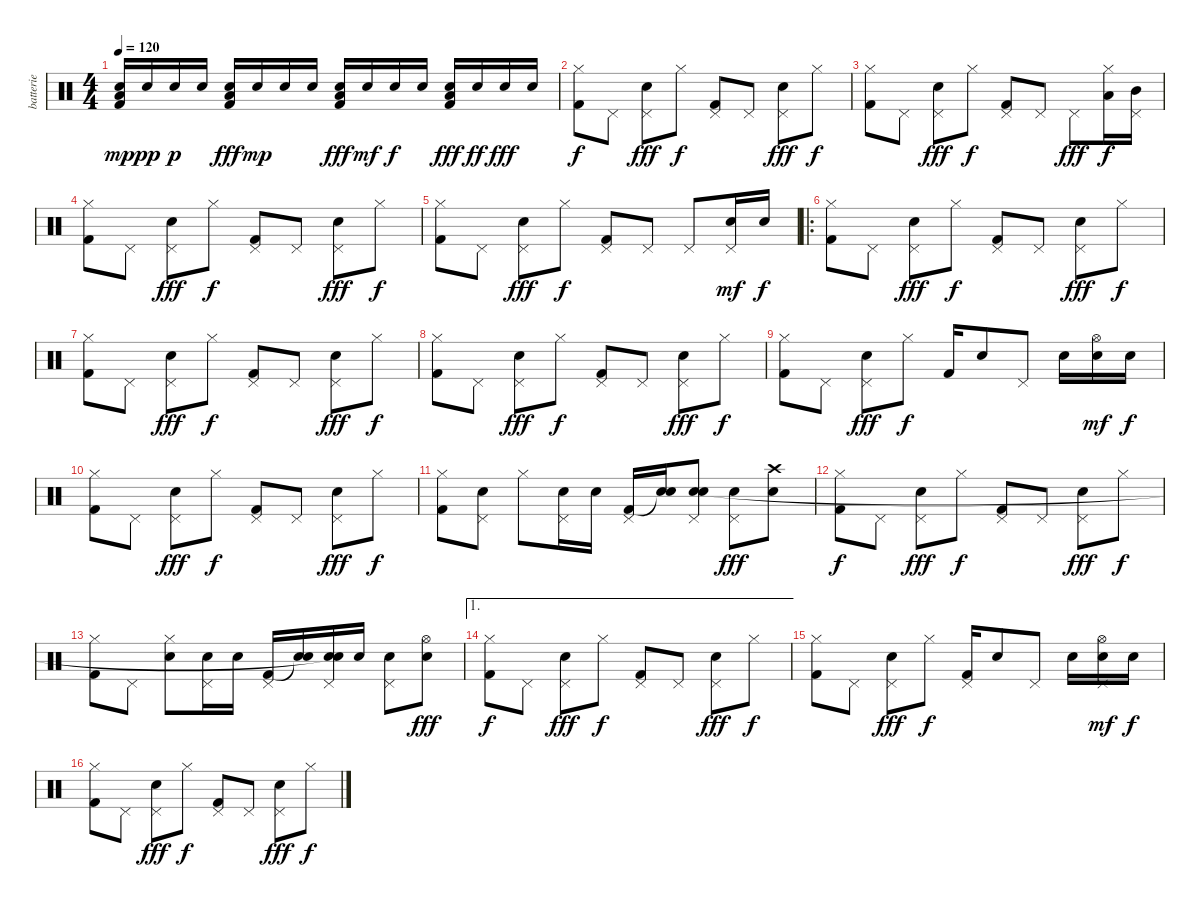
\track ("batterie" "batterie") {instrument percussion}
\staff {score}
\articulation defaults
\ts (4 4)
\tempo 120
\clef neutral
\ks c
("Electric Snare (hit)" "Low Floor Tom (hit)" "Kick (hit) 2").16{dy mp} "Electric Snare (hit)".16{dy pp} "Electric Snare (hit)".16{dy p} "Electric Snare (hit)".16 ("Electric Snare (hit)" "Low Floor Tom (hit)" "Kick (hit) 2").16{dy fff} "Electric Snare (hit)".16{dy mp} "Electric Snare (hit)".16 "Electric Snare (hit)".16 ("Electric Snare (hit)" "Low Floor Tom (hit)" "Kick (hit) 2").16{dy fff} "Electric Snare (hit)".16{dy mf} "Electric Snare (hit)".16{dy f} "Electric Snare (hit)".16 ("Electric Snare (hit)" "Low Floor Tom (hit)" "Kick (hit) 2").16{dy fff} "Electric Snare (hit)".16{dy ff} "Electric Snare (hit)".16{dy fff} "Electric Snare (hit)".16 |
("Hi-Hat (closed)" "Kick (hit) 2").8{dy f} "Pedal Hi-Hat (hit)".8 ("Pedal Hi-Hat (hit)" "Electric Snare (hit)").8{dy fff} "Hi-Hat (closed)".8{dy f} ("Pedal Hi-Hat (hit)" "Kick (hit) 2").8 "Pedal Hi-Hat (hit)".8 ("Pedal Hi-Hat (hit)" "Electric Snare (hit)").8{dy fff} "Hi-Hat (closed)".8{dy f} |
("Hi-Hat (closed)" "Kick (hit) 2").8 "Pedal Hi-Hat (hit)".8 ("Pedal Hi-Hat (hit)" "Electric Snare (hit)").8{dy fff} "Hi-Hat (closed)".8{dy f} ("Pedal Hi-Hat (hit)" "Kick (hit) 2").8 "Pedal Hi-Hat (hit)".8 "Pedal Hi-Hat (hit)".8{dy fff} ("Hi-Hat (closed)" "Low Tom (hit)").16{dy f} ("Pedal Hi-Hat (hit)" "Mid Tom (hit)").16 |
("Hi-Hat (closed)" "Kick (hit) 2").8 "Pedal Hi-Hat (hit)".8 ("Pedal Hi-Hat (hit)" "Electric Snare (hit)").8{dy fff} "Hi-Hat (closed)".8{dy f} ("Pedal Hi-Hat (hit)" "Kick (hit) 2").8 "Pedal Hi-Hat (hit)".8 ("Pedal Hi-Hat (hit)" "Electric Snare (hit)").8{dy fff} "Hi-Hat (closed)".8{dy f} |
("Hi-Hat (closed)" "Kick (hit) 2").8 "Pedal Hi-Hat (hit)".8 ("Pedal Hi-Hat (hit)" "Electric Snare (hit)").8{dy fff} "Hi-Hat (closed)".8{dy f} ("Pedal Hi-Hat (hit)" "Kick (hit) 2").8 "Pedal Hi-Hat (hit)".8 "Pedal Hi-Hat (hit)".8 ("Pedal Hi-Hat (hit)" "Electric Snare (hit)").16{dy mf} "Electric Snare (hit)".16{dy f} |
\ro
("Hi-Hat (closed)" "Kick (hit) 2").8 "Pedal Hi-Hat (hit)".8 ("Pedal Hi-Hat (hit)" "Electric Snare (hit)").8{dy fff} "Hi-Hat (closed)".8{dy f} ("Pedal Hi-Hat (hit)" "Kick (hit) 2").8 "Pedal Hi-Hat (hit)".8 ("Pedal Hi-Hat (hit)" "Electric Snare (hit)").8{dy fff} "Hi-Hat (closed)".8{dy f} |
("Hi-Hat (closed)" "Kick (hit) 2").8 "Pedal Hi-Hat (hit)".8 ("Pedal Hi-Hat (hit)" "Electric Snare (hit)").8{dy fff} "Hi-Hat (closed)".8{dy f} ("Pedal Hi-Hat (hit)" "Kick (hit) 2").8 "Pedal Hi-Hat (hit)".8 ("Pedal Hi-Hat (hit)" "Electric Snare (hit)").8{dy fff} "Hi-Hat (closed)".8{dy f} |
("Hi-Hat (closed)" "Kick (hit) 2").8 "Pedal Hi-Hat (hit)".8 ("Pedal Hi-Hat (hit)" "Electric Snare (hit)").8{dy fff} "Hi-Hat (closed)".8{dy f} ("Pedal Hi-Hat (hit)" "Kick (hit) 2").8 "Pedal Hi-Hat (hit)".8 ("Pedal Hi-Hat (hit)" "Electric Snare (hit)").8{dy fff} "Hi-Hat (closed)".8{dy f} |
("Hi-Hat (closed)" "Kick (hit) 2").8 "Pedal Hi-Hat (hit)".8 ("Pedal Hi-Hat (hit)" "Electric Snare (hit)").8{dy fff} "Hi-Hat (closed)".8{dy f} "Kick (hit) 2".16 "Electric Snare (hit)".8 "Pedal Hi-Hat (hit)".8 "Electric Snare (hit)".16 ("Hi-Hat (open)" "Electric Snare (hit)").16{dy mf} "Electric Snare (hit)".16{dy f} |
("Hi-Hat (closed)" "Kick (hit) 2").8 "Pedal Hi-Hat (hit)".8 ("Pedal Hi-Hat (hit)" "Electric Snare (hit)").8{dy fff} "Hi-Hat (closed)".8{dy f} ("Pedal Hi-Hat (hit)" "Kick (hit) 2").8 "Pedal Hi-Hat (hit)".8 ("Pedal Hi-Hat (hit)" "Electric Snare (hit)").8{dy fff} "Hi-Hat (closed)".8{dy f} |
("Hi-Hat (closed)" "Kick (hit) 2").8 ("Pedal Hi-Hat (hit)" "Electric Snare (hit)").8 "Hi-Hat (closed)".8 ("Pedal Hi-Hat (hit)" "Snare (hit) 2").16 "Electric Snare (hit)".16 ("Pedal Hi-Hat (hit)" "Kick (hit) 2").16 ("Snare (hit) 2" "Snare (hit)"{t}).16 ("Pedal Hi-Hat (hit)" "Electric Snare (hit)" "Snare (hit)").8 ("Pedal Hi-Hat (hit)" "Electric Snare (hit)").8{dy fff} ("Crash high (hit)" "Electric Snare (hit)").8 |
("Hi-Hat (closed)" "Kick (hit) 2").8{dy f} "Pedal Hi-Hat (hit)".8 ("Pedal Hi-Hat (hit)" "Electric Snare (hit)").8{dy fff} "Hi-Hat (closed)".8{dy f} ("Pedal Hi-Hat (hit)" "Kick (hit) 2").8 "Pedal Hi-Hat (hit)".8 ("Pedal Hi-Hat (hit)" "Electric Snare (hit)").8{dy fff} "Hi-Hat (closed)".8{dy f} |
("Hi-Hat (closed)" "Kick (hit) 2").8 "Pedal Hi-Hat (hit)".8 ("Hi-Hat (closed)" "Electric Snare (hit)").8 ("Pedal Hi-Hat (hit)" "Snare (hit) 2").16 "Electric Snare (hit)".16 ("Pedal Hi-Hat (hit)" "Kick (hit) 2").16 ("Snare (hit) 2" "Snare (hit)"{t}).16 ("Pedal Hi-Hat (hit)" "Electric Snare (hit)" "Snare (hit)"{t}).16 "Electric Snare (hit)".16 ("Pedal Hi-Hat (hit)" "Electric Snare (hit)").8 ("Hi-Hat (open)" "Electric Snare (hit)").8{dy fff} |
\ae 1
("Hi-Hat (closed)" "Kick (hit) 2").8{dy f} "Pedal Hi-Hat (hit)".8 ("Pedal Hi-Hat (hit)" "Electric Snare (hit)").8{dy fff} "Hi-Hat (closed)".8{dy f} ("Pedal Hi-Hat (hit)" "Kick (hit) 2").8 "Pedal Hi-Hat (hit)".8 ("Pedal Hi-Hat (hit)" "Electric Snare (hit)").8{dy fff} "Hi-Hat (closed)".8{dy f} |
("Hi-Hat (closed)" "Kick (hit) 2").8 "Pedal Hi-Hat (hit)".8 ("Pedal Hi-Hat (hit)" "Electric Snare (hit)").8{dy fff} "Hi-Hat (closed)".8{dy f} ("Pedal Hi-Hat (hit)" "Kick (hit) 2").16 "Electric Snare (hit)".8 "Pedal Hi-Hat (hit)".8 "Electric Snare (hit)".16 ("Pedal Hi-Hat (hit)" "Electric Snare (hit)" "Hi-Hat (open)").16{dy mf} "Electric Snare (hit)".16{dy f} |
("Hi-Hat (closed)" "Kick (hit) 2").8 "Pedal Hi-Hat (hit)".8 ("Pedal Hi-Hat (hit)" "Electric Snare (hit)").8{dy fff} "Hi-Hat (closed)".8{dy f} ("Pedal Hi-Hat (hit)" "Kick (hit) 2").8 "Pedal Hi-Hat (hit)".8 ("Pedal Hi-Hat (hit)" "Electric Snare (hit)").8{dy fff} "Hi-Hat (closed)".8{dy f}
